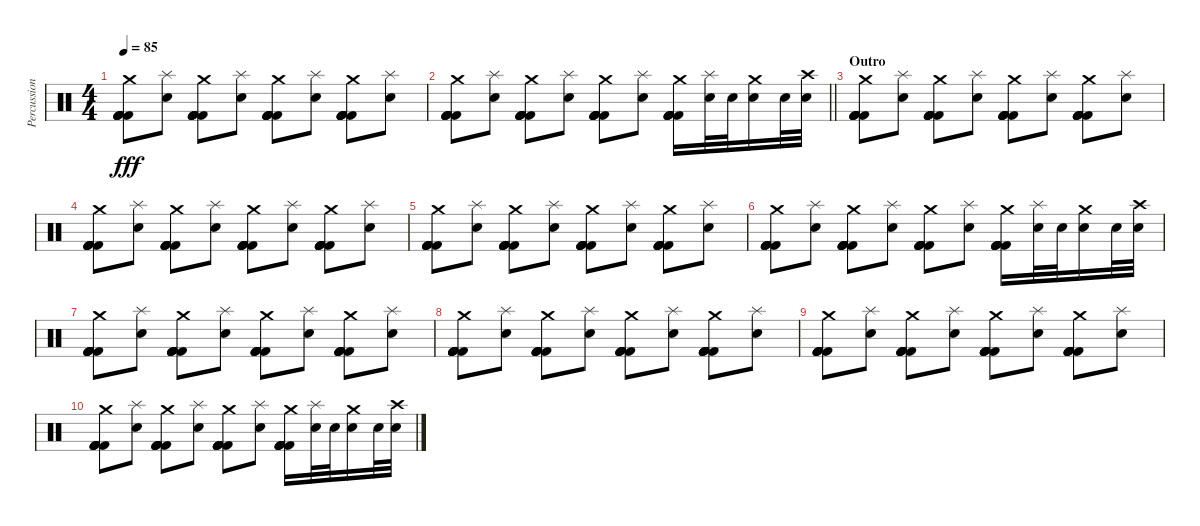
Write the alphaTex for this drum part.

\track ("Percussion" "Percussion") {instrument percussion}
\staff {score}
\articulation defaults
\ts (4 4)
\tempo 85
\clef neutral
\ks c
("Crash medium (hit)" "Kick (hit) 2" "Kick (hit) 2" "Kick (hit) 2" "Kick (hit) 2" "Kick (hit) 2").8{dy fff} ("Splash (hit)" "Snare (hit) 2").8 ("Crash medium (hit)" "Kick (hit) 2" "Kick (hit) 2" "Kick (hit) 2" "Kick (hit) 2" "Kick (hit) 2").8 ("Splash (hit)" "Snare (hit) 2").8 ("Crash medium (hit)" "Kick (hit) 2" "Kick (hit) 2" "Kick (hit) 2" "Kick (hit) 2" "Kick (hit) 2").8 ("Splash (hit)" "Snare (hit) 2").8 ("Crash medium (hit)" "Kick (hit) 2" "Kick (hit) 2" "Kick (hit) 2" "Kick (hit) 2" "Kick (hit) 2").8 ("Splash (hit)" "Snare (hit) 2").8 |
\barLineRight lightlight
("Crash medium (hit)" "Kick (hit) 2" "Kick (hit) 2" "Kick (hit) 2" "Kick (hit) 2" "Kick (hit) 2").8 ("Splash (hit)" "Snare (hit) 2").8 ("Crash medium (hit)" "Kick (hit) 2" "Kick (hit) 2" "Kick (hit) 2" "Kick (hit) 2" "Kick (hit) 2").8 ("Splash (hit)" "Snare (hit) 2").8 ("Crash medium (hit)" "Kick (hit) 2" "Kick (hit) 2" "Kick (hit) 2" "Kick (hit) 2" "Kick (hit) 2").8 ("Splash (hit)" "Snare (hit) 2").8 ("Crash medium (hit)" "Kick (hit) 2" "Kick (hit) 2" "Kick (hit) 2" "Kick (hit) 2" "Kick (hit) 2").16 ("Splash (hit)" "Snare (hit) 2").32 "Snare (hit) 2".32 ("Crash medium (hit)" "Snare (hit) 2").16 "Snare (hit) 2".32 ("Crash high (hit)" "Snare (hit) 2").32 |
\section ("" "Outro")
("Crash medium (hit)" "Kick (hit) 2" "Kick (hit) 2" "Kick (hit) 2" "Kick (hit) 2" "Kick (hit) 2").8 ("Splash (hit)" "Snare (hit) 2").8 ("Crash medium (hit)" "Kick (hit) 2" "Kick (hit) 2" "Kick (hit) 2" "Kick (hit) 2" "Kick (hit) 2").8 ("Splash (hit)" "Snare (hit) 2").8 ("Crash medium (hit)" "Kick (hit) 2" "Kick (hit) 2" "Kick (hit) 2" "Kick (hit) 2" "Kick (hit) 2").8 ("Splash (hit)" "Snare (hit) 2").8 ("Crash medium (hit)" "Kick (hit) 2" "Kick (hit) 2" "Kick (hit) 2" "Kick (hit) 2" "Kick (hit) 2").8 ("Splash (hit)" "Snare (hit) 2").8 |
("Crash medium (hit)" "Kick (hit) 2" "Kick (hit) 2" "Kick (hit) 2" "Kick (hit) 2" "Kick (hit) 2").8 ("Splash (hit)" "Snare (hit) 2").8 ("Crash medium (hit)" "Kick (hit) 2" "Kick (hit) 2" "Kick (hit) 2" "Kick (hit) 2" "Kick (hit) 2").8 ("Splash (hit)" "Snare (hit) 2").8 ("Crash medium (hit)" "Kick (hit) 2" "Kick (hit) 2" "Kick (hit) 2" "Kick (hit) 2" "Kick (hit) 2").8 ("Splash (hit)" "Snare (hit) 2").8 ("Crash medium (hit)" "Kick (hit) 2" "Kick (hit) 2" "Kick (hit) 2" "Kick (hit) 2" "Kick (hit) 2").8 ("Splash (hit)" "Snare (hit) 2").8 |
("Crash medium (hit)" "Kick (hit) 2" "Kick (hit) 2" "Kick (hit) 2" "Kick (hit) 2" "Kick (hit) 2").8 ("Splash (hit)" "Snare (hit) 2").8 ("Crash medium (hit)" "Kick (hit) 2" "Kick (hit) 2" "Kick (hit) 2" "Kick (hit) 2" "Kick (hit) 2").8 ("Splash (hit)" "Snare (hit) 2").8 ("Crash medium (hit)" "Kick (hit) 2" "Kick (hit) 2" "Kick (hit) 2" "Kick (hit) 2" "Kick (hit) 2").8 ("Splash (hit)" "Snare (hit) 2").8 ("Crash medium (hit)" "Kick (hit) 2" "Kick (hit) 2" "Kick (hit) 2" "Kick (hit) 2" "Kick (hit) 2").8 ("Splash (hit)" "Snare (hit) 2").8 |
("Crash medium (hit)" "Kick (hit) 2" "Kick (hit) 2" "Kick (hit) 2" "Kick (hit) 2" "Kick (hit) 2").8 ("Splash (hit)" "Snare (hit) 2").8 ("Crash medium (hit)" "Kick (hit) 2" "Kick (hit) 2" "Kick (hit) 2" "Kick (hit) 2" "Kick (hit) 2").8 ("Splash (hit)" "Snare (hit) 2").8 ("Crash medium (hit)" "Kick (hit) 2" "Kick (hit) 2" "Kick (hit) 2" "Kick (hit) 2" "Kick (hit) 2").8 ("Splash (hit)" "Snare (hit) 2").8 ("Crash medium (hit)" "Kick (hit) 2" "Kick (hit) 2" "Kick (hit) 2" "Kick (hit) 2" "Kick (hit) 2").16 ("Splash (hit)" "Snare (hit) 2").32 "Snare (hit) 2".32 ("Crash medium (hit)" "Snare (hit) 2").16 "Snare (hit) 2".32 ("Crash high (hit)" "Snare (hit) 2").32 |
("Crash medium (hit)" "Kick (hit) 2" "Kick (hit) 2" "Kick (hit) 2" "Kick (hit) 2" "Kick (hit) 2").8 ("Splash (hit)" "Snare (hit) 2").8 ("Crash medium (hit)" "Kick (hit) 2" "Kick (hit) 2" "Kick (hit) 2" "Kick (hit) 2" "Kick (hit) 2").8 ("Splash (hit)" "Snare (hit) 2").8 ("Crash medium (hit)" "Kick (hit) 2" "Kick (hit) 2" "Kick (hit) 2" "Kick (hit) 2" "Kick (hit) 2").8 ("Splash (hit)" "Snare (hit) 2").8 ("Crash medium (hit)" "Kick (hit) 2" "Kick (hit) 2" "Kick (hit) 2" "Kick (hit) 2" "Kick (hit) 2").8 ("Splash (hit)" "Snare (hit) 2").8 |
("Crash medium (hit)" "Kick (hit) 2" "Kick (hit) 2" "Kick (hit) 2" "Kick (hit) 2" "Kick (hit) 2").8 ("Splash (hit)" "Snare (hit) 2").8 ("Crash medium (hit)" "Kick (hit) 2" "Kick (hit) 2" "Kick (hit) 2" "Kick (hit) 2" "Kick (hit) 2").8 ("Splash (hit)" "Snare (hit) 2").8 ("Crash medium (hit)" "Kick (hit) 2" "Kick (hit) 2" "Kick (hit) 2" "Kick (hit) 2" "Kick (hit) 2").8 ("Splash (hit)" "Snare (hit) 2").8 ("Crash medium (hit)" "Kick (hit) 2" "Kick (hit) 2" "Kick (hit) 2" "Kick (hit) 2" "Kick (hit) 2").8 ("Splash (hit)" "Snare (hit) 2").8 |
("Crash medium (hit)" "Kick (hit) 2" "Kick (hit) 2" "Kick (hit) 2" "Kick (hit) 2" "Kick (hit) 2").8 ("Splash (hit)" "Snare (hit) 2").8 ("Crash medium (hit)" "Kick (hit) 2" "Kick (hit) 2" "Kick (hit) 2" "Kick (hit) 2" "Kick (hit) 2").8 ("Splash (hit)" "Snare (hit) 2").8 ("Crash medium (hit)" "Kick (hit) 2" "Kick (hit) 2" "Kick (hit) 2" "Kick (hit) 2" "Kick (hit) 2").8 ("Splash (hit)" "Snare (hit) 2").8 ("Crash medium (hit)" "Kick (hit) 2" "Kick (hit) 2" "Kick (hit) 2" "Kick (hit) 2" "Kick (hit) 2").8 ("Splash (hit)" "Snare (hit) 2").8 |
("Crash medium (hit)" "Kick (hit) 2" "Kick (hit) 2" "Kick (hit) 2" "Kick (hit) 2" "Kick (hit) 2").8 ("Splash (hit)" "Snare (hit) 2").8 ("Crash medium (hit)" "Kick (hit) 2" "Kick (hit) 2" "Kick (hit) 2" "Kick (hit) 2" "Kick (hit) 2").8 ("Splash (hit)" "Snare (hit) 2").8 ("Crash medium (hit)" "Kick (hit) 2" "Kick (hit) 2" "Kick (hit) 2" "Kick (hit) 2" "Kick (hit) 2").8 ("Splash (hit)" "Snare (hit) 2").8 ("Crash medium (hit)" "Kick (hit) 2" "Kick (hit) 2" "Kick (hit) 2" "Kick (hit) 2" "Kick (hit) 2").16 ("Splash (hit)" "Snare (hit) 2").32 "Snare (hit) 2".32 ("Crash medium (hit)" "Snare (hit) 2").16 "Snare (hit) 2".32 ("Crash high (hit)" "Snare (hit) 2").32
